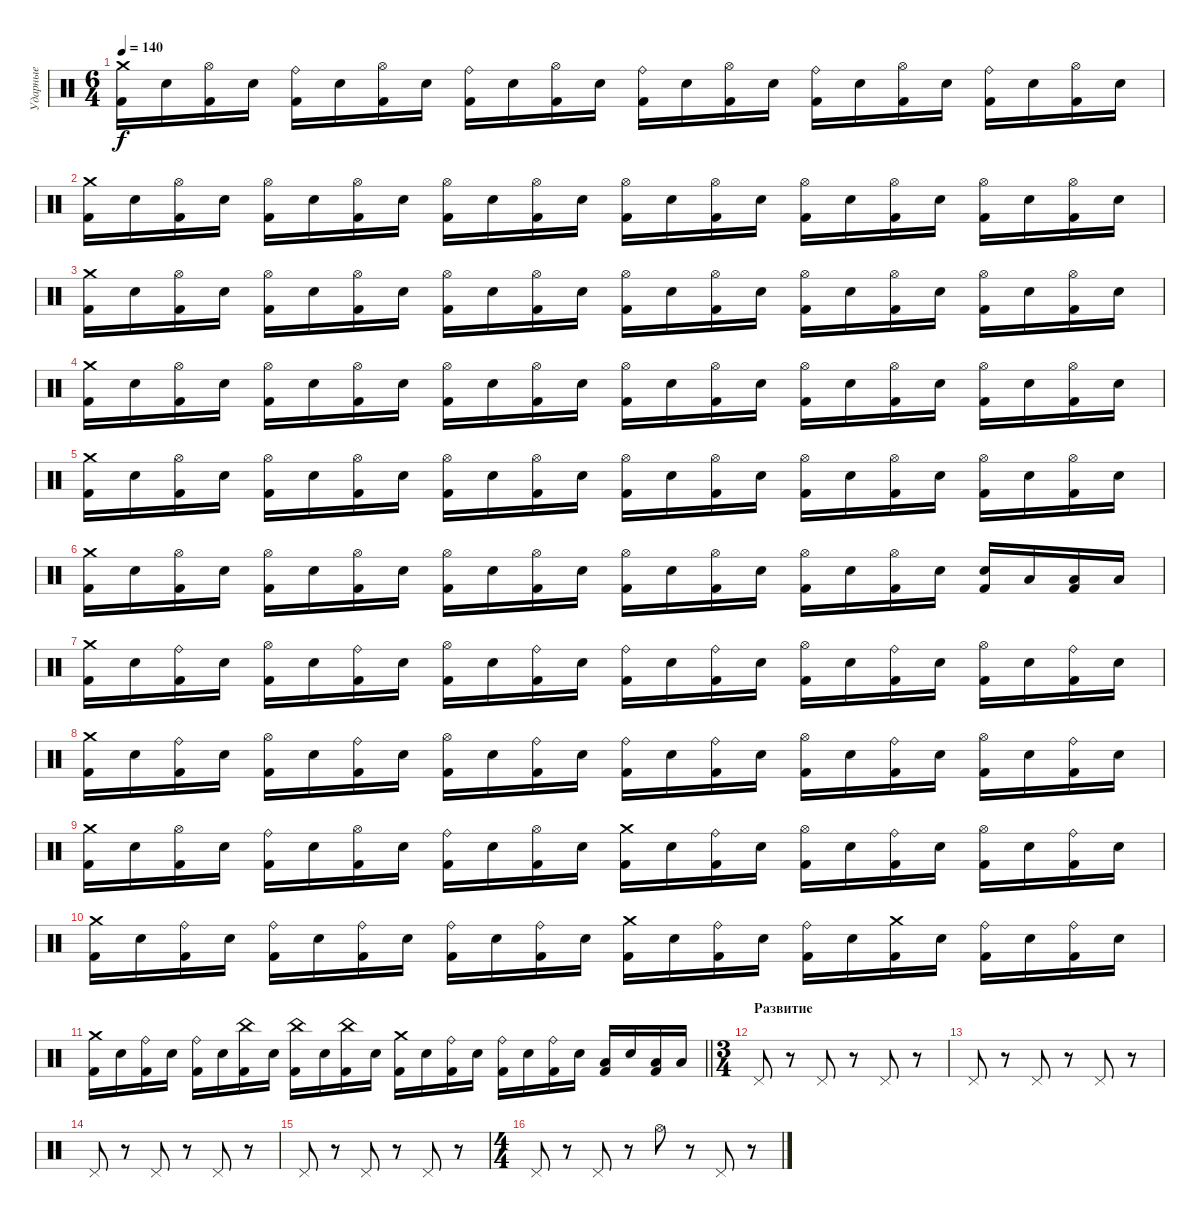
\track ("Ударные" "Ударные") {instrument percussion}
\staff {score}
\articulation defaults
\ts (6 4)
\tempo 140
\clef neutral
\ks c
("Crash medium (hit)" "Kick (hit) 2").16{dy f} "Electric Snare (hit)".16 ("Hi-Hat (open)" "Kick (hit) 2").16 "Electric Snare (hit)".16 ("Ride (bell)" "Kick (hit) 2").16 "Electric Snare (hit)".16 ("Hi-Hat (open)" "Kick (hit) 2").16 "Electric Snare (hit)".16 ("Ride (bell)" "Kick (hit) 2").16 "Electric Snare (hit)".16 ("Hi-Hat (open)" "Kick (hit) 2").16 "Electric Snare (hit)".16 ("Ride (bell)" "Kick (hit) 2").16 "Electric Snare (hit)".16 ("Hi-Hat (open)" "Kick (hit) 2").16 "Electric Snare (hit)".16 ("Ride (bell)" "Kick (hit) 2").16 "Electric Snare (hit)".16 ("Hi-Hat (open)" "Kick (hit) 2").16 "Electric Snare (hit)".16 ("Ride (bell)" "Kick (hit) 2").16 "Electric Snare (hit)".16 ("Hi-Hat (open)" "Kick (hit) 2").16 "Electric Snare (hit)".16 |
("Crash medium (hit)" "Kick (hit) 2").16 "Electric Snare (hit)".16 ("Hi-Hat (open)" "Kick (hit) 2").16 "Electric Snare (hit)".16 ("Hi-Hat (open)" "Kick (hit) 2").16 "Electric Snare (hit)".16 ("Hi-Hat (open)" "Kick (hit) 2").16 "Electric Snare (hit)".16 ("Hi-Hat (open)" "Kick (hit) 2").16 "Electric Snare (hit)".16 ("Hi-Hat (open)" "Kick (hit) 2").16 "Electric Snare (hit)".16 ("Hi-Hat (open)" "Kick (hit) 2").16 "Electric Snare (hit)".16 ("Hi-Hat (open)" "Kick (hit) 2").16 "Electric Snare (hit)".16 ("Hi-Hat (open)" "Kick (hit) 2").16 "Electric Snare (hit)".16 ("Hi-Hat (open)" "Kick (hit) 2").16 "Electric Snare (hit)".16 ("Hi-Hat (open)" "Kick (hit) 2").16 "Electric Snare (hit)".16 ("Hi-Hat (open)" "Kick (hit) 2").16 "Electric Snare (hit)".16 |
("Crash medium (hit)" "Kick (hit) 2").16 "Electric Snare (hit)".16 ("Hi-Hat (open)" "Kick (hit) 2").16 "Electric Snare (hit)".16 ("Hi-Hat (open)" "Kick (hit) 2").16 "Electric Snare (hit)".16 ("Hi-Hat (open)" "Kick (hit) 2").16 "Electric Snare (hit)".16 ("Hi-Hat (open)" "Kick (hit) 2").16 "Electric Snare (hit)".16 ("Hi-Hat (open)" "Kick (hit) 2").16 "Electric Snare (hit)".16 ("Hi-Hat (open)" "Kick (hit) 2").16 "Electric Snare (hit)".16 ("Hi-Hat (open)" "Kick (hit) 2").16 "Electric Snare (hit)".16 ("Hi-Hat (open)" "Kick (hit) 2").16 "Electric Snare (hit)".16 ("Hi-Hat (open)" "Kick (hit) 2").16 "Electric Snare (hit)".16 ("Hi-Hat (open)" "Kick (hit) 2").16 "Electric Snare (hit)".16 ("Hi-Hat (open)" "Kick (hit) 2").16 "Electric Snare (hit)".16 |
("Crash medium (hit)" "Kick (hit) 2").16 "Electric Snare (hit)".16 ("Hi-Hat (open)" "Kick (hit) 2").16 "Electric Snare (hit)".16 ("Hi-Hat (open)" "Kick (hit) 2").16 "Electric Snare (hit)".16 ("Hi-Hat (open)" "Kick (hit) 2").16 "Electric Snare (hit)".16 ("Hi-Hat (open)" "Kick (hit) 2").16 "Electric Snare (hit)".16 ("Hi-Hat (open)" "Kick (hit) 2").16 "Electric Snare (hit)".16 ("Hi-Hat (open)" "Kick (hit) 2").16 "Electric Snare (hit)".16 ("Hi-Hat (open)" "Kick (hit) 2").16 "Electric Snare (hit)".16 ("Hi-Hat (open)" "Kick (hit) 2").16 "Electric Snare (hit)".16 ("Hi-Hat (open)" "Kick (hit) 2").16 "Electric Snare (hit)".16 ("Hi-Hat (open)" "Kick (hit) 2").16 "Electric Snare (hit)".16 ("Hi-Hat (open)" "Kick (hit) 2").16 "Electric Snare (hit)".16 |
("Crash medium (hit)" "Kick (hit) 2").16 "Electric Snare (hit)".16 ("Hi-Hat (open)" "Kick (hit) 2").16 "Electric Snare (hit)".16 ("Hi-Hat (open)" "Kick (hit) 2").16 "Electric Snare (hit)".16 ("Hi-Hat (open)" "Kick (hit) 2").16 "Electric Snare (hit)".16 ("Hi-Hat (open)" "Kick (hit) 2").16 "Electric Snare (hit)".16 ("Hi-Hat (open)" "Kick (hit) 2").16 "Electric Snare (hit)".16 ("Hi-Hat (open)" "Kick (hit) 2").16 "Electric Snare (hit)".16 ("Hi-Hat (open)" "Kick (hit) 2").16 "Electric Snare (hit)".16 ("Hi-Hat (open)" "Kick (hit) 2").16 "Electric Snare (hit)".16 ("Hi-Hat (open)" "Kick (hit) 2").16 "Electric Snare (hit)".16 ("Hi-Hat (open)" "Kick (hit) 2").16 "Electric Snare (hit)".16 ("Hi-Hat (open)" "Kick (hit) 2").16 "Electric Snare (hit)".16 |
("Crash medium (hit)" "Kick (hit) 2").16 "Electric Snare (hit)".16 ("Hi-Hat (open)" "Kick (hit) 2").16 "Electric Snare (hit)".16 ("Hi-Hat (open)" "Kick (hit) 2").16 "Electric Snare (hit)".16 ("Hi-Hat (open)" "Kick (hit) 2").16 "Electric Snare (hit)".16 ("Hi-Hat (open)" "Kick (hit) 2").16 "Electric Snare (hit)".16 ("Hi-Hat (open)" "Kick (hit) 2").16 "Electric Snare (hit)".16 ("Hi-Hat (open)" "Kick (hit) 2").16 "Electric Snare (hit)".16 ("Hi-Hat (open)" "Kick (hit) 2").16 "Electric Snare (hit)".16 ("Hi-Hat (open)" "Kick (hit) 2").16 "Electric Snare (hit)".16 ("Hi-Hat (open)" "Kick (hit) 2").16 "Electric Snare (hit)".16 ("Electric Snare (hit)" "Kick (hit) 2").16 "Low Tom (hit)".16 ("Low Tom (hit)" "Kick (hit) 2").16 "Low Tom (hit)".16 |
("Crash medium (hit)" "Kick (hit) 2").16 "Electric Snare (hit)".16 ("Ride (bell)" "Kick (hit) 2").16 "Electric Snare (hit)".16 ("Hi-Hat (open)" "Kick (hit) 2").16 "Electric Snare (hit)".16 ("Ride (bell)" "Kick (hit) 2").16 "Electric Snare (hit)".16 ("Hi-Hat (open)" "Kick (hit) 2").16 "Electric Snare (hit)".16 ("Ride (bell)" "Kick (hit) 2").16 "Electric Snare (hit)".16 ("Ride (bell)" "Kick (hit) 2").16 "Electric Snare (hit)".16 ("Ride (bell)" "Kick (hit) 2").16 "Electric Snare (hit)".16 ("Hi-Hat (open)" "Kick (hit) 2").16 "Electric Snare (hit)".16 ("Ride (bell)" "Kick (hit) 2").16 "Electric Snare (hit)".16 ("Hi-Hat (open)" "Kick (hit) 2").16 "Electric Snare (hit)".16 ("Ride (bell)" "Kick (hit) 2").16 "Electric Snare (hit)".16 |
("Crash medium (hit)" "Kick (hit) 2").16 "Electric Snare (hit)".16 ("Ride (bell)" "Kick (hit) 2").16 "Electric Snare (hit)".16 ("Hi-Hat (open)" "Kick (hit) 2").16 "Electric Snare (hit)".16 ("Ride (bell)" "Kick (hit) 2").16 "Electric Snare (hit)".16 ("Hi-Hat (open)" "Kick (hit) 2").16 "Electric Snare (hit)".16 ("Ride (bell)" "Kick (hit) 2").16 "Electric Snare (hit)".16 ("Ride (bell)" "Kick (hit) 2").16 "Electric Snare (hit)".16 ("Ride (bell)" "Kick (hit) 2").16 "Electric Snare (hit)".16 ("Hi-Hat (open)" "Kick (hit) 2").16 "Electric Snare (hit)".16 ("Ride (bell)" "Kick (hit) 2").16 "Electric Snare (hit)".16 ("Hi-Hat (open)" "Kick (hit) 2").16 "Electric Snare (hit)".16 ("Ride (bell)" "Kick (hit) 2").16 "Electric Snare (hit)".16 |
("Crash medium (hit)" "Kick (hit) 2").16 "Electric Snare (hit)".16 ("Hi-Hat (open)" "Kick (hit) 2").16 "Electric Snare (hit)".16 ("Ride (bell)" "Kick (hit) 2").16 "Electric Snare (hit)".16 ("Hi-Hat (open)" "Kick (hit) 2").16 "Electric Snare (hit)".16 ("Ride (bell)" "Kick (hit) 2").16 "Electric Snare (hit)".16 ("Hi-Hat (open)" "Kick (hit) 2").16 "Electric Snare (hit)".16 ("Crash medium (hit)" "Kick (hit) 2").16 "Electric Snare (hit)".16 ("Ride (bell)" "Kick (hit) 2").16 "Electric Snare (hit)".16 ("Hi-Hat (open)" "Kick (hit) 2").16 "Electric Snare (hit)".16 ("Ride (bell)" "Kick (hit) 2").16 "Electric Snare (hit)".16 ("Hi-Hat (open)" "Kick (hit) 2").16 "Electric Snare (hit)".16 ("Ride (bell)" "Kick (hit) 2").16 "Electric Snare (hit)".16 |
("Crash medium (hit)" "Kick (hit) 2").16 "Electric Snare (hit)".16 ("Ride (bell)" "Kick (hit) 2").16 "Electric Snare (hit)".16 ("Ride (bell)" "Kick (hit) 2").16 "Electric Snare (hit)".16 ("Ride (bell)" "Kick (hit) 2").16 "Electric Snare (hit)".16 ("Ride (bell)" "Kick (hit) 2").16 "Electric Snare (hit)".16 ("Ride (bell)" "Kick (hit) 2").16 "Electric Snare (hit)".16 ("Crash medium (hit)" "Kick (hit) 2").16 "Electric Snare (hit)".16 ("Ride (bell)" "Kick (hit) 2").16 "Electric Snare (hit)".16 ("Ride (bell)" "Kick (hit) 2").16 "Electric Snare (hit)".16 ("Crash medium (hit)" "Kick (hit) 2").16 "Electric Snare (hit)".16 ("Ride (bell)" "Kick (hit) 2").16 "Electric Snare (hit)".16 ("Ride (bell)" "Kick (hit) 2").16 "Electric Snare (hit)".16 |
\barLineRight lightlight
("Crash medium (hit)" "Kick (hit) 2").16 "Electric Snare (hit)".16 ("Ride (bell)" "Kick (hit) 2").16 "Electric Snare (hit)".16 ("Ride (bell)" "Kick (hit) 2").16 "Electric Snare (hit)".16 ("China (hit)" "Kick (hit) 2").16 "Electric Snare (hit)".16 ("China (hit)" "Kick (hit) 2").16 "Electric Snare (hit)".16 ("China (hit)" "Kick (hit) 2").16 "Electric Snare (hit)".16 ("Crash medium (hit)" "Kick (hit) 2").16 "Electric Snare (hit)".16 ("Ride (bell)" "Kick (hit) 2").16 "Electric Snare (hit)".16 ("Ride (bell)" "Kick (hit) 2").16 "Electric Snare (hit)".16 ("Ride (bell)" "Kick (hit) 2").16 "Electric Snare (hit)".16 ("Low Tom (hit)" "Kick (hit) 2").16 "Electric Snare (hit)".16 ("Low Tom (hit)" "Kick (hit) 2").16 "Low Tom (hit)".16 |
\ts (3 4)
\section ("" "Развитие")
"Pedal Hi-Hat (hit)".8 r.8 "Pedal Hi-Hat (hit)".8 r.8 "Pedal Hi-Hat (hit)".8 r.8 |
"Pedal Hi-Hat (hit)".8 r.8 "Pedal Hi-Hat (hit)".8 r.8 "Pedal Hi-Hat (hit)".8 r.8 |
"Pedal Hi-Hat (hit)".8 r.8 "Pedal Hi-Hat (hit)".8 r.8 "Pedal Hi-Hat (hit)".8 r.8 |
"Pedal Hi-Hat (hit)".8 r.8 "Pedal Hi-Hat (hit)".8 r.8 "Pedal Hi-Hat (hit)".8 r.8 |
\ts (4 4)
"Pedal Hi-Hat (hit)".8 r.8 "Pedal Hi-Hat (hit)".8 r.8 "Hi-Hat (open)".8 r.8 "Pedal Hi-Hat (hit)".8 r.8
